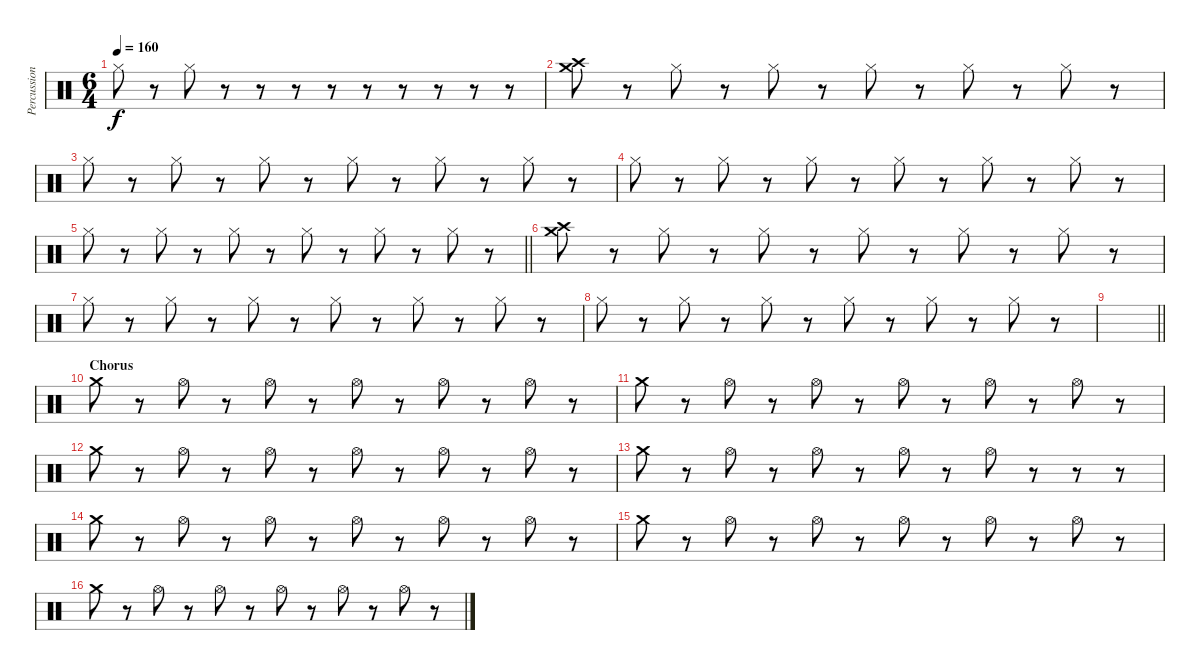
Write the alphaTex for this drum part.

\track ("Percussion" "Percussion") {instrument percussion}
\staff {score}
\articulation defaults
\ts (6 4)
\tempo 160
\clef neutral
\ks c "Hi-Hat (closed)".8{dy f}
r.8 "Hi-Hat (closed)".8 r.8 r.8 r.8 r.8 r.8 r.8 r.8 r.8 r.8 |
("Crash medium (hit)" "Crash high (hit)").8 r.8 "Hi-Hat (closed)".8 r.8 "Hi-Hat (closed)".8 r.8 "Hi-Hat (closed)".8 r.8 "Hi-Hat (closed)".8 r.8 "Hi-Hat (closed)".8 r.8 |
"Hi-Hat (closed)".8 r.8 "Hi-Hat (closed)".8 r.8 "Hi-Hat (closed)".8 r.8 "Hi-Hat (closed)".8 r.8 "Hi-Hat (closed)".8 r.8 "Hi-Hat (closed)".8 r.8 |
"Hi-Hat (closed)".8 r.8 "Hi-Hat (closed)".8 r.8 "Hi-Hat (closed)".8 r.8 "Hi-Hat (closed)".8 r.8 "Hi-Hat (closed)".8 r.8 "Hi-Hat (closed)".8 r.8 |
\barLineRight lightlight "Hi-Hat (closed)".8
r.8 "Hi-Hat (closed)".8 r.8 "Hi-Hat (closed)".8 r.8 "Hi-Hat (closed)".8 r.8 "Hi-Hat (closed)".8 r.8 "Hi-Hat (closed)".8 r.8 |
("Crash medium (hit)" "Crash high (hit)").8 r.8 "Hi-Hat (closed)".8 r.8 "Hi-Hat (closed)".8 r.8 "Hi-Hat (closed)".8 r.8 "Hi-Hat (closed)".8 r.8 "Hi-Hat (closed)".8 r.8 |
"Hi-Hat (closed)".8 r.8 "Hi-Hat (closed)".8 r.8 "Hi-Hat (closed)".8 r.8 "Hi-Hat (closed)".8 r.8 "Hi-Hat (closed)".8 r.8 "Hi-Hat (closed)".8 r.8 |
"Hi-Hat (closed)".8 r.8 "Hi-Hat (closed)".8 r.8 "Hi-Hat (closed)".8 r.8 "Hi-Hat (closed)".8 r.8 "Hi-Hat (closed)".8 r.8 "Hi-Hat (closed)".8 r.8 |
\barLineRight lightlight
|
\section ("" "Chorus")
"Crash medium (hit)".8 r.8 "Hi-Hat (open)".8 r.8 "Hi-Hat (open)".8 r.8 "Hi-Hat (open)".8 r.8 "Hi-Hat (open)".8 r.8 "Hi-Hat (open)".8 r.8 |
"Crash medium (hit)".8 r.8 "Hi-Hat (open)".8 r.8 "Hi-Hat (open)".8 r.8 "Hi-Hat (open)".8 r.8 "Hi-Hat (open)".8 r.8 "Hi-Hat (open)".8 r.8 |
"Crash medium (hit)".8 r.8 "Hi-Hat (open)".8 r.8 "Hi-Hat (open)".8 r.8 "Hi-Hat (open)".8 r.8 "Hi-Hat (open)".8 r.8 "Hi-Hat (open)".8 r.8 |
"Crash medium (hit)".8 r.8 "Hi-Hat (open)".8 r.8 "Hi-Hat (open)".8 r.8 "Hi-Hat (open)".8 r.8 "Hi-Hat (open)".8 r.8 r.8 r.8 |
"Crash medium (hit)".8 r.8 "Hi-Hat (open)".8 r.8 "Hi-Hat (open)".8 r.8 "Hi-Hat (open)".8 r.8 "Hi-Hat (open)".8 r.8 "Hi-Hat (open)".8 r.8 |
"Crash medium (hit)".8 r.8 "Hi-Hat (open)".8 r.8 "Hi-Hat (open)".8 r.8 "Hi-Hat (open)".8 r.8 "Hi-Hat (open)".8 r.8 "Hi-Hat (open)".8 r.8 |
"Crash medium (hit)".8 r.8 "Hi-Hat (open)".8 r.8 "Hi-Hat (open)".8 r.8 "Hi-Hat (open)".8 r.8 "Hi-Hat (open)".8 r.8 "Hi-Hat (open)".8 r.8
